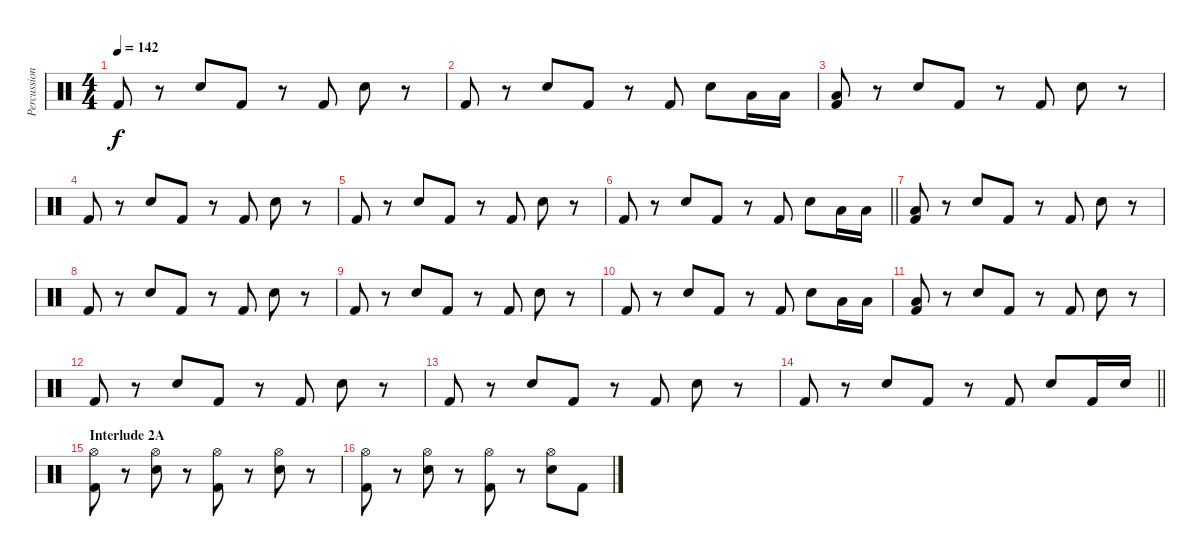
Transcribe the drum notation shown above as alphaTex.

\track ("Percussion" "Percussion") {instrument percussion}
\staff {score}
\articulation defaults
\ts (4 4)
\tempo 142
\clef neutral
\ks c "Kick (hit) 2".8{dy f}
r.8 "Electric Snare (hit)".8 "Kick (hit) 2".8 r.8 "Kick (hit) 2".8 "Electric Snare (hit)".8 r.8 |
"Kick (hit) 2".8 r.8 "Electric Snare (hit)".8 "Kick (hit) 2".8 r.8 "Kick (hit) 2".8 "Electric Snare (hit)".8 "Low Tom (hit)".16 "Low Tom (hit)".16 |
("Low Tom (hit)" "Kick (hit) 2").8 r.8 "Electric Snare (hit)".8 "Kick (hit) 2".8 r.8 "Kick (hit) 2".8 "Electric Snare (hit)".8 r.8 |
"Kick (hit) 2".8 r.8 "Electric Snare (hit)".8 "Kick (hit) 2".8 r.8 "Kick (hit) 2".8 "Electric Snare (hit)".8 r.8 |
"Kick (hit) 2".8 r.8 "Electric Snare (hit)".8 "Kick (hit) 2".8 r.8 "Kick (hit) 2".8 "Electric Snare (hit)".8 r.8 |
\barLineRight lightlight "Kick (hit) 2".8
r.8 "Electric Snare (hit)".8 "Kick (hit) 2".8 r.8 "Kick (hit) 2".8 "Electric Snare (hit)".8 "Low Tom (hit)".16 "Low Tom (hit)".16 |
("Low Tom (hit)" "Kick (hit) 2").8 r.8 "Electric Snare (hit)".8 "Kick (hit) 2".8 r.8 "Kick (hit) 2".8 "Electric Snare (hit)".8 r.8 |
"Kick (hit) 2".8 r.8 "Electric Snare (hit)".8 "Kick (hit) 2".8 r.8 "Kick (hit) 2".8 "Electric Snare (hit)".8 r.8 |
"Kick (hit) 2".8 r.8 "Electric Snare (hit)".8 "Kick (hit) 2".8 r.8 "Kick (hit) 2".8 "Electric Snare (hit)".8 r.8 |
"Kick (hit) 2".8 r.8 "Electric Snare (hit)".8 "Kick (hit) 2".8 r.8 "Kick (hit) 2".8 "Electric Snare (hit)".8 "Low Tom (hit)".16 "Low Tom (hit)".16 |
("Low Tom (hit)" "Kick (hit) 2").8 r.8 "Electric Snare (hit)".8 "Kick (hit) 2".8 r.8 "Kick (hit) 2".8 "Electric Snare (hit)".8 r.8 |
"Kick (hit) 2".8 r.8 "Electric Snare (hit)".8 "Kick (hit) 2".8 r.8 "Kick (hit) 2".8 "Electric Snare (hit)".8 r.8 |
"Kick (hit) 2".8 r.8 "Electric Snare (hit)".8 "Kick (hit) 2".8 r.8 "Kick (hit) 2".8 "Electric Snare (hit)".8 r.8 |
\barLineRight lightlight "Kick (hit) 2".8
r.8 "Electric Snare (hit)".8 "Kick (hit) 2".8 r.8 "Kick (hit) 2".8 "Electric Snare (hit)".8 "Kick (hit) 2".16 "Electric Snare (hit)".16 |
\section ("" "Interlude 2A")
("Hi-Hat (open)" "Kick (hit) 2").8 r.8 ("Hi-Hat (open)" "Electric Snare (hit)").8 r.8 ("Hi-Hat (open)" "Kick (hit) 2").8 r.8 ("Hi-Hat (open)" "Electric Snare (hit)").8 r.8 |
("Hi-Hat (open)" "Kick (hit) 2").8 r.8 ("Hi-Hat (open)" "Electric Snare (hit)").8 r.8 ("Hi-Hat (open)" "Kick (hit) 2").8 r.8 ("Hi-Hat (open)" "Electric Snare (hit)").8 "Kick (hit) 2".8
